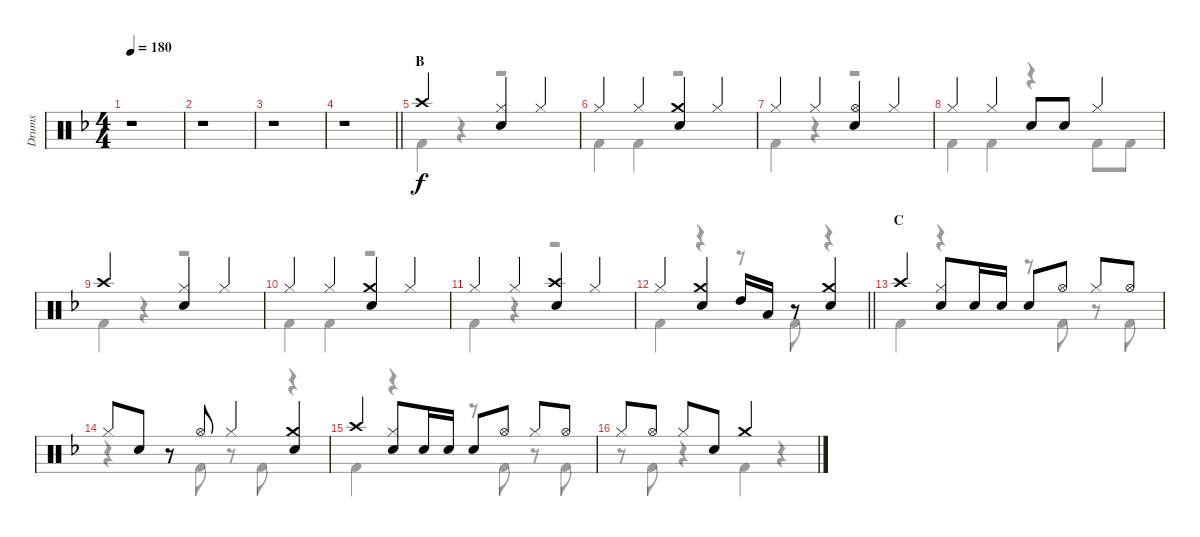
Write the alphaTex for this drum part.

\track ("Drums" "Drums") {instrument percussion}
\staff {score}
\articulation defaults
\voice
\ts (4 4)
\tempo 180
\clef neutral
\ks f
r.1{dy f} |
r.1 |
r.1 |
\barLineRight lightlight
r.1 |
\section ("" "B")
"Crash high (hit)".2 ("Hi-Hat (closed)" "Snare (hit) 2").4 "Hi-Hat (closed)".4 |
"Hi-Hat (closed)".4 "Hi-Hat (closed)".4 ("Crash medium (hit)" "Snare (hit) 2").4 "Hi-Hat (closed)".4 |
"Hi-Hat (closed)".4 "Hi-Hat (closed)".4 ("Hi-Hat (open)" "Snare (hit) 2").4 "Hi-Hat (closed)".4 |
"Hi-Hat (closed)".4 "Hi-Hat (closed)".4 "Snare (hit) 2".8 "Snare (hit) 2".8 "Hi-Hat (closed)".4 |
"Crash high (hit)".2 ("Hi-Hat (closed)" "Snare (hit) 2").4 "Hi-Hat (closed)".4 |
"Hi-Hat (closed)".4 "Hi-Hat (closed)".4 ("Crash medium (hit)" "Snare (hit) 2").4 "Hi-Hat (closed)".4 |
"Hi-Hat (closed)".4 "Hi-Hat (closed)".4 ("Crash high (hit)" "Snare (hit) 2").4 "Hi-Hat (closed)".4 |
\barLineRight lightlight "Hi-Hat (closed)".4
("Crash medium (hit)" "Snare (hit) 2").4 "High Tom (hit)".16 "Low Tom (hit)".16 r.8 ("Crash medium (hit)" "Snare (hit) 2").4 |
\section ("" "C")
"Crash high (hit)".4 ("Hi-Hat (closed)" "Snare (hit) 2").8 "Snare (hit) 2".16 "Snare (hit) 2".16 "Snare (hit) 2".8 "Hi-Hat (open)".8 "Hi-Hat (closed)".8 "Hi-Hat (open)".8 |
"Hi-Hat (closed)".8 "Snare (hit) 2".8 r.8 "Hi-Hat (open)".8 "Hi-Hat (closed)".4 ("Crash medium (hit)" "Snare (hit) 2").4 |
"Crash high (hit)".4 ("Hi-Hat (closed)" "Snare (hit) 2").8 "Snare (hit) 2".16 "Snare (hit) 2".16 "Snare (hit) 2".8 "Hi-Hat (open)".8 "Hi-Hat (closed)".8 "Hi-Hat (open)".8 |
"Hi-Hat (closed)".8 "Hi-Hat (open)".8 "Hi-Hat (closed)".8 "Snare (hit) 2".8 "Crash medium (hit)".2
\voice
\clef neutral
\ottava regular
\simile none
\ks f
r.1{dy f} |
r.1 |
r.1 |
\barLineRight lightlight
r.1 |
"Kick (hit) 2".4 r.4 r.2 |
"Kick (hit) 2".4 "Kick (hit) 2".4 r.2 |
"Kick (hit) 2".4 r.4 r.2 |
"Kick (hit) 2".4 "Kick (hit) 2".4 r.4 "Kick (hit) 2".8 "Kick (hit) 2".8 |
"Kick (hit) 2".4 r.4 r.2 |
"Kick (hit) 2".4 "Kick (hit) 2".4 r.2 |
"Kick (hit) 2".4 r.4 r.2 |
\barLineRight lightlight "Kick (hit) 2".4
r.4 r.8 "Kick (hit) 2".8 r.4 |
"Kick (hit) 2".4 r.4 r.8 "Kick (hit) 2".8 r.8 "Kick (hit) 2".8 |
r.4 r.8 "Kick (hit) 2".8 r.8 "Kick (hit) 2".8 r.4 |
"Kick (hit) 2".4 r.4 r.8 "Kick (hit) 2".8 r.8 "Kick (hit) 2".8 |
r.8 "Kick (hit) 2".8 r.4 "Kick (hit) 2".4 r.4
